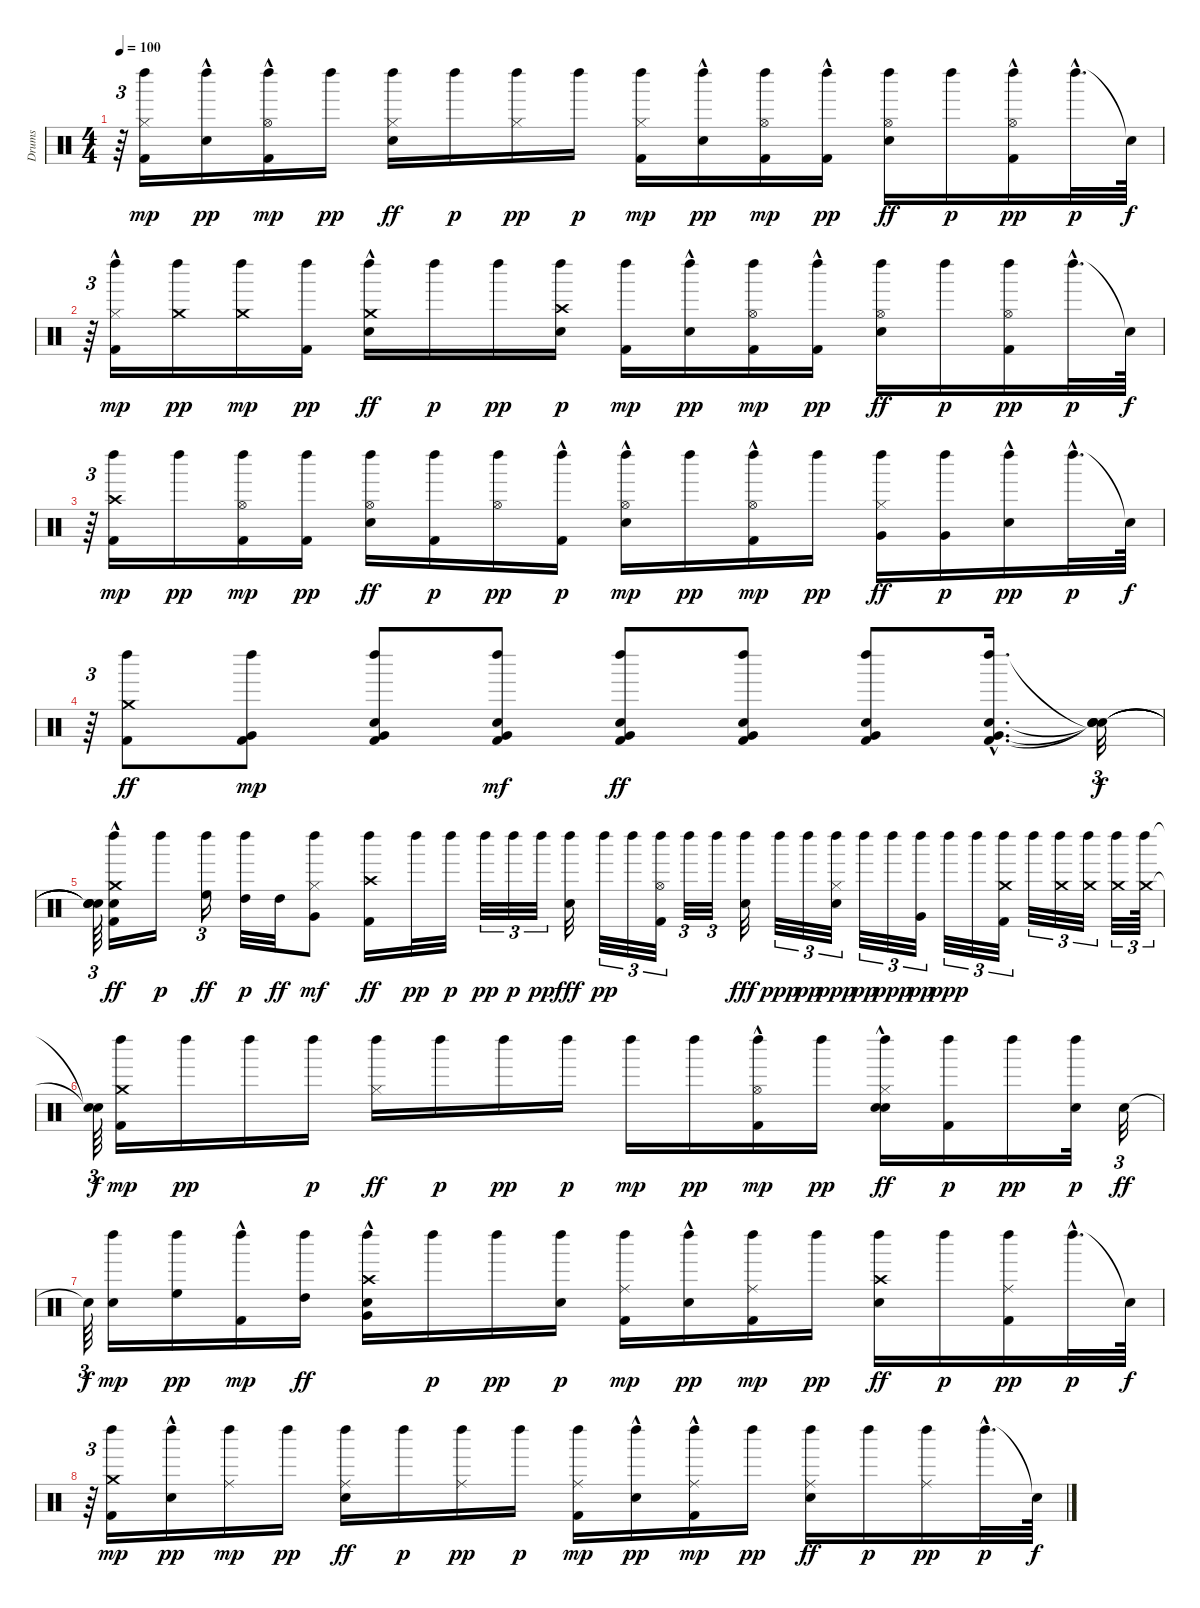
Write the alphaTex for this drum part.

\track ("Drums" "Drums") {instrument percussion}
\staff {score}
\articulation defaults
\ts (4 4)
\tempo 100
\clef neutral
\ks c
r.64{tu (3 2) dy f} ("Kick (hit) 2" "Hi-Hat (closed)" "Left Maraca (hit)").16{dy mp} ("Snare (hit) 2"{hac} "Left Maraca (hit)").16{dy pp} ("Kick (hit) 2"{hac} "Hi-Hat (open)" "Left Maraca (hit)").16{dy mp} "Left Maraca (hit)".16{dy pp} ("Snare (hit) 2" "Hi-Hat (closed)" "Left Maraca (hit)").16{dy ff} "Left Maraca (hit)".16{dy p} ("Hi-Hat (closed)" "Left Maraca (hit)").16{dy pp} "Left Maraca (hit)".16{dy p} ("Kick (hit) 2" "Hi-Hat (closed)" "Left Maraca (hit)").16{dy mp} ("Snare (hit) 2"{hac} "Left Maraca (hit)").16{dy pp} ("Kick (hit) 2" "Hi-Hat (open)" "Left Maraca (hit)").16{dy mp} ("Kick (hit) 2"{hac} "Left Maraca (hit)").16{dy pp} ("Snare (hit) 2" "Hi-Hat (open)" "Left Maraca (hit)").16{dy ff} "Left Maraca (hit)".16{dy p} ("Kick (hit) 2" "Hi-Hat (open)"{hac} "Left Maraca (hit)").16{dy pp} "Left Maraca (hit)"{hac}.32{d dy p} "Snare (hit)"{t}.64{dy f} |
r.64{tu (3 2)} ("Kick (hit) 2"{hac} "Hi-Hat (closed)" "Left Maraca (hit)").16{dy mp} ("Left Maraca (hit)" "Crash medium (hit)").16{dy pp} ("Crash medium (hit)" "Left Maraca (hit)").16{dy mp} ("Kick (hit) 2" "Left Maraca (hit)").16{dy pp} ("Crash medium (hit)" "Snare (hit) 2"{hac} "Left Maraca (hit)").16{dy ff} "Left Maraca (hit)".16{dy p} "Left Maraca (hit)".16{dy pp} ("Crash high (hit)" "Snare (hit) 2" "Left Maraca (hit)").16{dy p} ("Kick (hit) 2" "Left Maraca (hit)").16{dy mp} ("Snare (hit) 2"{hac} "Left Maraca (hit)").16{dy pp} ("Kick (hit) 2" "Hi-Hat (open)" "Left Maraca (hit)").16{dy mp} ("Kick (hit) 2"{hac} "Left Maraca (hit)").16{dy pp} ("Snare (hit) 2" "Hi-Hat (open)" "Left Maraca (hit)").16{dy ff} "Left Maraca (hit)".16{dy p} ("Kick (hit) 2" "Hi-Hat (open)" "Left Maraca (hit)").16{dy pp} "Left Maraca (hit)"{hac}.32{d dy p} "Snare (hit)"{t}.64{dy f} |
r.64{tu (3 2)} ("Crash high (hit)" "Kick (hit) 2" "Left Maraca (hit)").16{dy mp} "Left Maraca (hit)".16{dy pp} ("Kick (hit) 2" "Hi-Hat (open)" "Left Maraca (hit)").16{dy mp} ("Kick (hit) 2" "Left Maraca (hit)").16{dy pp} ("Snare (hit) 2" "Hi-Hat (open)" "Left Maraca (hit)").16{dy ff} ("Kick (hit) 2" "Left Maraca (hit)").16{dy p} ("Hi-Hat (open)" "Left Maraca (hit)").16{dy pp} ("Kick (hit) 2"{hac} "Left Maraca (hit)").16{dy p} ("Snare (hit) 2"{hac} "Hi-Hat (open)" "Left Maraca (hit)").16{dy mp} "Left Maraca (hit)".16{dy pp} ("Kick (hit) 2"{hac} "Hi-Hat (open)" "Left Maraca (hit)").16{dy mp} "Left Maraca (hit)".16{dy pp} ("Hi-Hat (closed)" "Very Low Tom (hit)" "Left Maraca (hit)").16{dy ff} ("Very Low Tom (hit)" "Left Maraca (hit)").16{dy p} ("Snare (hit) 2"{hac} "Left Maraca (hit)").16{dy pp} "Left Maraca (hit)"{hac}.32{d dy p} "Snare (hit)"{t}.64{dy f} |
r.64{tu (3 2)} ("Crash medium (hit)" "Kick (hit) 2" "Left Maraca (hit)").8{dy ff} ("Kick (hit) 2" "Very Low Tom (hit)" "Left Maraca (hit)").8{dy mp} ("Kick (hit) 2" "Snare (hit) 2" "Very Low Tom (hit)" "Left Maraca (hit)").8 ("Kick (hit) 2" "Snare (hit) 2" "Very Low Tom (hit)" "Left Maraca (hit)").8{dy mf} ("Kick (hit) 2" "Snare (hit) 2" "Very Low Tom (hit)" "Left Maraca (hit)").8{dy ff} ("Kick (hit) 2" "Snare (hit) 2" "Very Low Tom (hit)" "Left Maraca (hit)").8 ("Kick (hit) 2" "Snare (hit) 2" "Very Low Tom (hit)" "Left Maraca (hit)").8 ("Kick (hit) 2"{hac} "Snare (hit) 2"{hac} "Very Low Tom (hit)"{hac} "Left Maraca (hit)"{hac}).16{d} ("Snare (hit)"{t} "Snare (hit)"{t} "Snare (hit)"{t} "Snare (hit)"{t}).32{tu (3 2) dy f} |
("Snare (hit)"{t} "Snare (hit)"{t} "Snare (hit)"{t} "Snare (hit)"{t}).64{tu (3 2)} ("Crash medium (hit)"{hac} "Kick (hit) 2"{hac} "Snare (hit) 2" "Left Maraca (hit)").16{dy ff} "Left Maraca (hit)".16{dy p} ("Left Maraca (hit)" "High Floor Tom (hit)").16{tu (3 2) dy ff} ("High Tom (hit)" "Left Maraca (hit)").32{dy p} "High Tom (hit)".32{dy ff} ("Hi-Hat (closed)" "Very Low Tom (hit)" "Left Maraca (hit)").8{dy mf} ("Crash high (hit)" "Kick (hit) 2" "Left Maraca (hit)").16{dy ff} "Left Maraca (hit)".32{dy pp} "Left Maraca (hit)".32{dy p} "Left Maraca (hit)".32{tu (3 2) dy pp} "Left Maraca (hit)".32{tu (3 2) dy p} "Left Maraca (hit)".32{tu (3 2) dy pp} ("Left Maraca (hit)" "Snare (hit) 2").32{dy fff} "Left Maraca (hit)".32{tu (3 2) dy pp} "Left Maraca (hit)".32{tu (3 2)} ("Kick (hit) 2" "Hi-Hat (open)" "Left Maraca (hit)").32{tu (3 2)} "Left Maraca (hit)".32{tu (3 2)} "Left Maraca (hit)".32{tu (3 2)} ("Left Maraca (hit)" "Snare (hit) 2").32{dy fff} "Left Maraca (hit)".32{tu (3 2) dy ppp} "Left Maraca (hit)".32{tu (3 2) dy pp} ("Snare (hit) 2" "Hi-Hat (closed)" "Left Maraca (hit)").32{tu (3 2) dy ppp} "Left Maraca (hit)".32{tu (3 2) dy pp} "Left Maraca (hit)".32{tu (3 2) dy ppp} ("Very Low Tom (hit)" "Left Maraca (hit)").32{tu (3 2) dy pp} "Left Maraca (hit)".32{tu (3 2) dy ppp} "Left Maraca (hit)".32{tu (3 2)} ("Crash medium (hit)" "Kick (hit) 2" "Left Maraca (hit)").32{tu (3 2)} "Left Maraca (hit)".32{tu (3 2)} ("Crash medium (hit)" "Left Maraca (hit)").32{tu (3 2)} ("Crash medium (hit)" "Left Maraca (hit)").32{tu (3 2)} ("Crash medium (hit)" "Left Maraca (hit)").32{tu (3 2)} ("Crash medium (hit)" "Left Maraca (hit)").64{tu (3 2)} |
("Snare (hit)"{t} "Snare (hit)"{t}).64{tu (3 2) dy f} ("Crash medium (hit)" "Kick (hit) 2" "Left Maraca (hit)").16{dy mp} "Left Maraca (hit)".16{dy pp} "Left Maraca (hit)".16 "Left Maraca (hit)".16{dy p} ("Hi-Hat (closed)" "Left Maraca (hit)").16{dy ff} "Left Maraca (hit)".16{dy p} "Left Maraca (hit)".16{dy pp} "Left Maraca (hit)".16{dy p} "Left Maraca (hit)".16{dy mp} "Left Maraca (hit)".16{dy pp} ("Kick (hit) 2"{hac} "Hi-Hat (open)" "Left Maraca (hit)").16{dy mp} "Left Maraca (hit)".16{dy pp} ("Snare (hit) 2" "Snare (hit) 2"{hac} "Hi-Hat (closed)" "Left Maraca (hit)").16{dy ff} ("Kick (hit) 2" "Left Maraca (hit)").16{dy p} "Left Maraca (hit)".16{dy pp} ("Snare (hit) 2" "Left Maraca (hit)").32{dy p} "Snare (hit) 2".32{tu (3 2) dy ff} |
"Snare (hit)"{t}.64{tu (3 2) dy f} ("Snare (hit) 2" "Left Maraca (hit)").16{dy mp} ("High Floor Tom (hit)" "Left Maraca (hit)").16{dy pp} ("Kick (hit) 2"{hac} "Left Maraca (hit)").16{dy mp} ("Left Maraca (hit)" "High Tom (hit)").16{dy ff} ("Crash high (hit)" "Snare (hit) 2"{hac} "Very Low Tom (hit)" "Left Maraca (hit)").16 "Left Maraca (hit)".16{dy p} "Left Maraca (hit)".16{dy pp} ("Snare (hit) 2" "Left Maraca (hit)").16{dy p} ("Ride (middle)" "Kick (hit) 2" "Left Maraca (hit)").16{dy mp} ("Snare (hit) 2"{hac} "Left Maraca (hit)").16{dy pp} ("Ride (middle)" "Kick (hit) 2" "Left Maraca (hit)").16{dy mp} "Left Maraca (hit)".16{dy pp} ("Crash high (hit)" "Snare (hit) 2" "Left Maraca (hit)").16{dy ff} "Left Maraca (hit)".16{dy p} ("Ride (middle)" "Kick (hit) 2" "Left Maraca (hit)").16{dy pp} "Left Maraca (hit)"{hac}.32{d dy p} "Snare (hit)"{t}.64{dy f} |
r.64{tu (3 2)} ("Crash medium (hit)" "Kick (hit) 2" "Left Maraca (hit)").16{dy mp} ("Snare (hit) 2"{hac} "Left Maraca (hit)").16{dy pp} ("Ride (middle)" "Left Maraca (hit)").16{dy mp} "Left Maraca (hit)".16{dy pp} ("Ride (middle)" "Snare (hit) 2" "Left Maraca (hit)").16{dy ff} "Left Maraca (hit)".16{dy p} ("Ride (middle)" "Left Maraca (hit)").16{dy pp} "Left Maraca (hit)".16{dy p} ("Ride (middle)" "Kick (hit) 2" "Left Maraca (hit)").16{dy mp} ("Snare (hit) 2"{hac} "Left Maraca (hit)").16{dy pp} ("Ride (middle)" "Kick (hit) 2"{hac} "Left Maraca (hit)").16{dy mp} "Left Maraca (hit)".16{dy pp} ("Ride (middle)" "Snare (hit) 2" "Left Maraca (hit)").16{dy ff} "Left Maraca (hit)".16{dy p} ("Ride (middle)" "Left Maraca (hit)").16{dy pp} "Left Maraca (hit)"{hac}.32{d dy p} "Snare (hit)"{t}.64{dy f}
